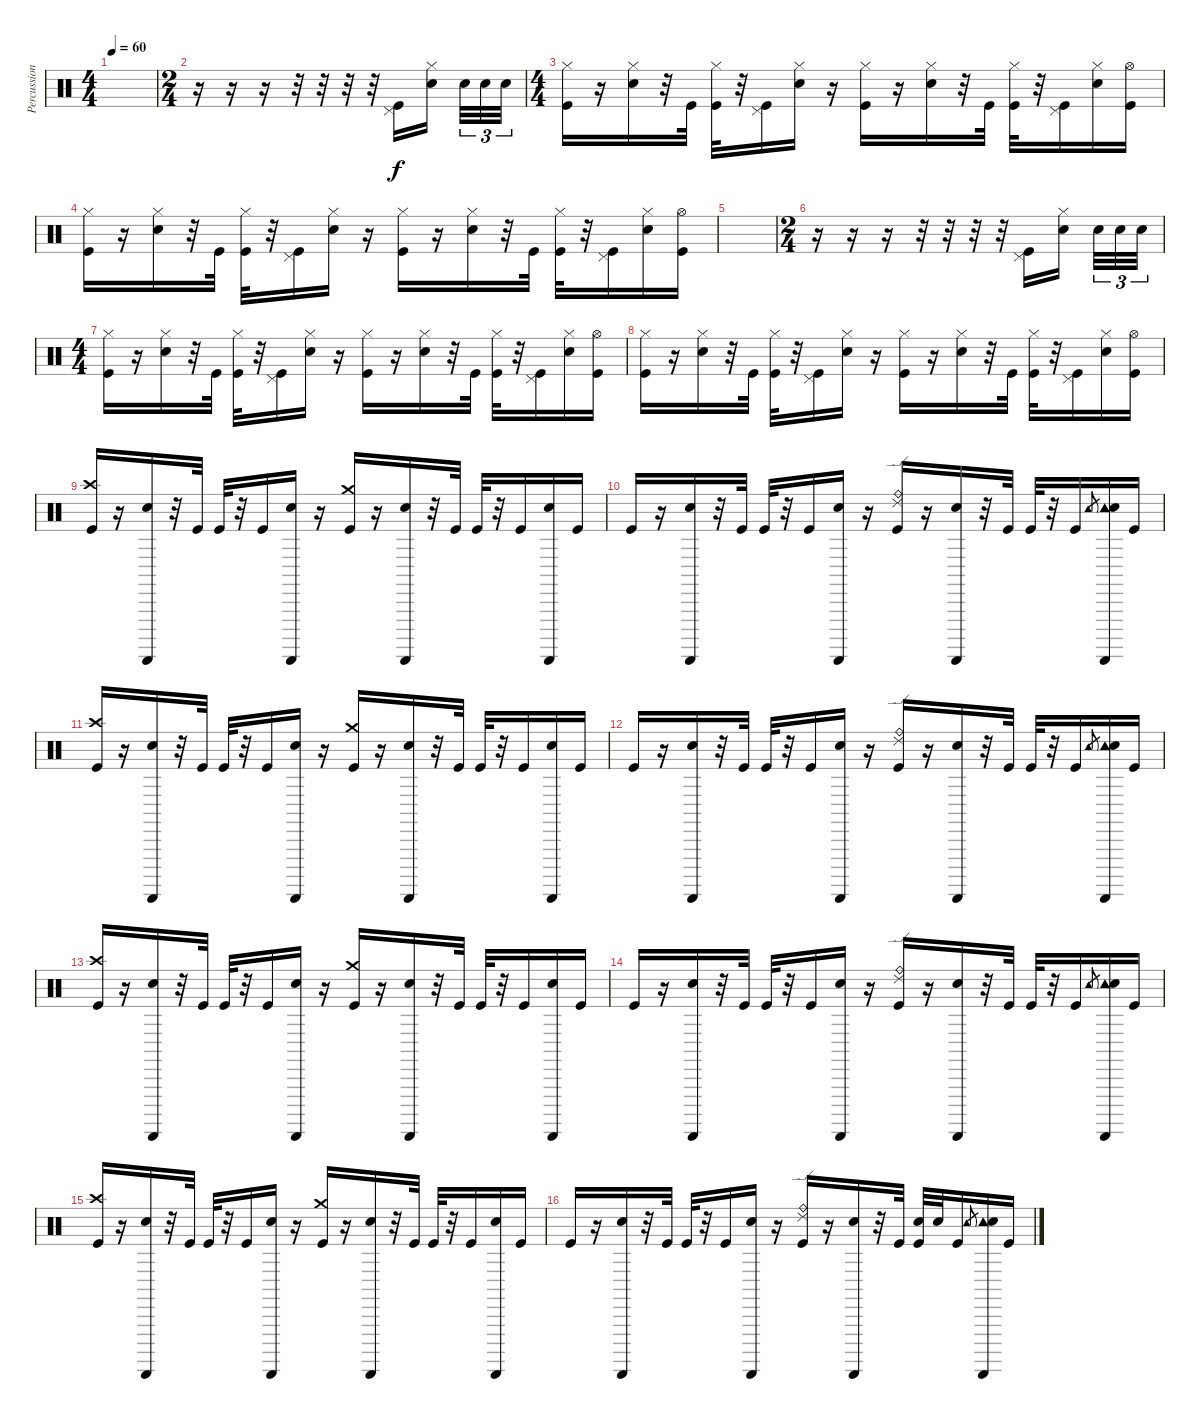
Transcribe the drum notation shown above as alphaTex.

\track ("Percussions" "Percussion") {instrument percussion}
\staff {score}
\articulation defaults
\ts (4 4)
\tempo 60
\clef neutral
\ks c
|
\ts (2 4)
r.16 r.16 r.16 r.32 r.32 r.32 r.32 ("Pedal Hi-Hat (hit)" "Kick (hit)").16 ("Hi-Hat (closed)" "Electric Snare (hit)").16 "Snare (hit) 2".32{tu (3 2)} "Snare (hit) 2".32{tu (3 2)} "Snare (hit) 2".32{tu (3 2)} |
\ts (4 4)
("Hi-Hat (closed)" "Kick (hit)").16 r.16 ("Hi-Hat (closed)" "Electric Snare (hit)").16 r.32 "Kick (hit)".32 ("Hi-Hat (closed)" "Kick (hit)").32 r.32 ("Pedal Hi-Hat (hit)" "Kick (hit)").16 ("Hi-Hat (closed)" "Electric Snare (hit)").16 r.16 ("Hi-Hat (closed)" "Kick (hit)").16 r.16 ("Hi-Hat (closed)" "Electric Snare (hit)").16 r.32 "Kick (hit)".32 ("Hi-Hat (closed)" "Kick (hit)").32 r.32 ("Pedal Hi-Hat (hit)" "Kick (hit)").16 ("Hi-Hat (closed)" "Electric Snare (hit)").16 ("Hi-Hat (open)" "Kick (hit)").16 |
("Hi-Hat (closed)" "Kick (hit)").16 r.16 ("Hi-Hat (closed)" "Electric Snare (hit)").16 r.32 "Kick (hit)".32 ("Hi-Hat (closed)" "Kick (hit)").32 r.32 ("Pedal Hi-Hat (hit)" "Kick (hit)").16 ("Hi-Hat (closed)" "Electric Snare (hit)").16 r.16 ("Hi-Hat (closed)" "Kick (hit)").16 r.16 ("Hi-Hat (closed)" "Electric Snare (hit)").16 r.32 "Kick (hit)".32 ("Hi-Hat (closed)" "Kick (hit)").32 r.32 ("Pedal Hi-Hat (hit)" "Kick (hit)").16 ("Hi-Hat (closed)" "Electric Snare (hit)").16 ("Hi-Hat (open)" "Kick (hit)").16 |
|
\ts (2 4)
r.16 r.16 r.16 r.32 r.32 r.32 r.32 ("Pedal Hi-Hat (hit)" "Kick (hit)").16 ("Hi-Hat (closed)" "Electric Snare (hit)").16 "Snare (hit) 2".32{tu (3 2)} "Snare (hit) 2".32{tu (3 2)} "Snare (hit) 2".32{tu (3 2)} |
\ts (4 4)
("Hi-Hat (closed)" "Kick (hit)").16 r.16 ("Hi-Hat (closed)" "Electric Snare (hit)").16 r.32 "Kick (hit)".32 ("Hi-Hat (closed)" "Kick (hit)").32 r.32 ("Pedal Hi-Hat (hit)" "Kick (hit)").16 ("Hi-Hat (closed)" "Electric Snare (hit)").16 r.16 ("Hi-Hat (closed)" "Kick (hit)").16 r.16 ("Hi-Hat (closed)" "Electric Snare (hit)").16 r.32 "Kick (hit)".32 ("Hi-Hat (closed)" "Kick (hit)").32 r.32 ("Pedal Hi-Hat (hit)" "Kick (hit)").16 ("Hi-Hat (closed)" "Electric Snare (hit)").16 ("Hi-Hat (open)" "Kick (hit)").16 |
("Hi-Hat (closed)" "Kick (hit)").16 r.16 ("Hi-Hat (closed)" "Electric Snare (hit)").16 r.32 "Kick (hit)".32 ("Hi-Hat (closed)" "Kick (hit)").32 r.32 ("Pedal Hi-Hat (hit)" "Kick (hit)").16 ("Hi-Hat (closed)" "Electric Snare (hit)").16 r.16 ("Hi-Hat (closed)" "Kick (hit)").16 r.16 ("Hi-Hat (closed)" "Electric Snare (hit)").16 r.32 "Kick (hit)".32 ("Hi-Hat (closed)" "Kick (hit)").32 r.32 ("Pedal Hi-Hat (hit)" "Kick (hit)").16 ("Hi-Hat (closed)" "Electric Snare (hit)").16 ("Hi-Hat (open)" "Kick (hit)").16 |
("Crash high (hit)" "Kick (hit)").16 r.16 ("Guiro (scrap-return)" "Electric Snare (hit)").16 r.32 "Kick (hit)".32 "Kick (hit)".32 r.32 "Kick (hit)".16 ("Guiro (scrap-return)" "Electric Snare (hit)").16 r.16 ("Crash medium (hit)" "Kick (hit)").16 r.16 ("Guiro (scrap-return)" "Electric Snare (hit)").16 r.32 "Kick (hit)".32 "Kick (hit)".32 r.32 "Kick (hit)".16 ("Guiro (scrap-return)" "Electric Snare (hit)").16 "Kick (hit)".16 |
"Kick (hit)".16 r.16 ("Guiro (scrap-return)" "Electric Snare (hit)").16 r.32 "Kick (hit)".32 "Kick (hit)".32 r.32 "Kick (hit)".16 ("Guiro (scrap-return)" "Electric Snare (hit)").16 r.16 ("Ride (bell)" "Ride (edge) 2" "Kick (hit)").16 r.16 ("Guiro (scrap-return)" "Electric Snare (hit)").16 r.32 "Kick (hit)".32 "Kick (hit)".32 r.32 "Kick (hit)".16 "Tambourine (hit)".8{gr} ("Tambourine (hit)" "Guiro (scrap-return)" "Electric Snare (hit)").16 "Kick (hit)".16 |
("Crash high (hit)" "Kick (hit)").16 r.16 ("Guiro (scrap-return)" "Electric Snare (hit)").16 r.32 "Kick (hit)".32 "Kick (hit)".32 r.32 "Kick (hit)".16 ("Guiro (scrap-return)" "Electric Snare (hit)").16 r.16 ("Crash medium (hit)" "Kick (hit)").16 r.16 ("Guiro (scrap-return)" "Electric Snare (hit)").16 r.32 "Kick (hit)".32 "Kick (hit)".32 r.32 "Kick (hit)".16 ("Guiro (scrap-return)" "Electric Snare (hit)").16 "Kick (hit)".16 |
"Kick (hit)".16 r.16 ("Guiro (scrap-return)" "Electric Snare (hit)").16 r.32 "Kick (hit)".32 "Kick (hit)".32 r.32 "Kick (hit)".16 ("Guiro (scrap-return)" "Electric Snare (hit)").16 r.16 ("Ride (bell)" "Ride (edge) 2" "Kick (hit)").16 r.16 ("Guiro (scrap-return)" "Electric Snare (hit)").16 r.32 "Kick (hit)".32 "Kick (hit)".32 r.32 "Kick (hit)".16 "Tambourine (hit)".8{gr} ("Tambourine (hit)" "Guiro (scrap-return)" "Electric Snare (hit)").16 "Kick (hit)".16 |
("Crash high (hit)" "Kick (hit)").16 r.16 ("Guiro (scrap-return)" "Electric Snare (hit)").16 r.32 "Kick (hit)".32 "Kick (hit)".32 r.32 "Kick (hit)".16 ("Guiro (scrap-return)" "Electric Snare (hit)").16 r.16 ("Crash medium (hit)" "Kick (hit)").16 r.16 ("Guiro (scrap-return)" "Electric Snare (hit)").16 r.32 "Kick (hit)".32 "Kick (hit)".32 r.32 "Kick (hit)".16 ("Guiro (scrap-return)" "Electric Snare (hit)").16 "Kick (hit)".16 |
"Kick (hit)".16 r.16 ("Guiro (scrap-return)" "Electric Snare (hit)").16 r.32 "Kick (hit)".32 "Kick (hit)".32 r.32 "Kick (hit)".16 ("Guiro (scrap-return)" "Electric Snare (hit)").16 r.16 ("Ride (bell)" "Ride (edge) 2" "Kick (hit)").16 r.16 ("Guiro (scrap-return)" "Electric Snare (hit)").16 r.32 "Kick (hit)".32 "Kick (hit)".32 r.32 "Kick (hit)".16 "Tambourine (hit)".8{gr} ("Tambourine (hit)" "Guiro (scrap-return)" "Electric Snare (hit)").16 "Kick (hit)".16 |
("Crash high (hit)" "Kick (hit)").16 r.16 ("Guiro (scrap-return)" "Electric Snare (hit)").16 r.32 "Kick (hit)".32 "Kick (hit)".32 r.32 "Kick (hit)".16 ("Guiro (scrap-return)" "Electric Snare (hit)").16 r.16 ("Crash medium (hit)" "Kick (hit)").16 r.16 ("Guiro (scrap-return)" "Electric Snare (hit)").16 r.32 "Kick (hit)".32 "Kick (hit)".32 r.32 "Kick (hit)".16 ("Guiro (scrap-return)" "Electric Snare (hit)").16 "Kick (hit)".16 |
"Kick (hit)".16 r.16 ("Guiro (scrap-return)" "Electric Snare (hit)").16 r.32 "Kick (hit)".32 "Kick (hit)".32 r.32 "Kick (hit)".16 ("Guiro (scrap-return)" "Electric Snare (hit)").16 r.16 ("Ride (bell)" "Ride (edge) 2" "Kick (hit)").16 r.16 ("Guiro (scrap-return)" "Electric Snare (hit)").16 r.32 "Kick (hit)".32 ("Electric Snare (hit)" "Kick (hit)").32 "Electric Snare (hit)".32 "Kick (hit)".16 "Tambourine (hit)".8{gr} ("Tambourine (hit)" "Guiro (scrap-return)" "Electric Snare (hit)").16 "Kick (hit)".16
